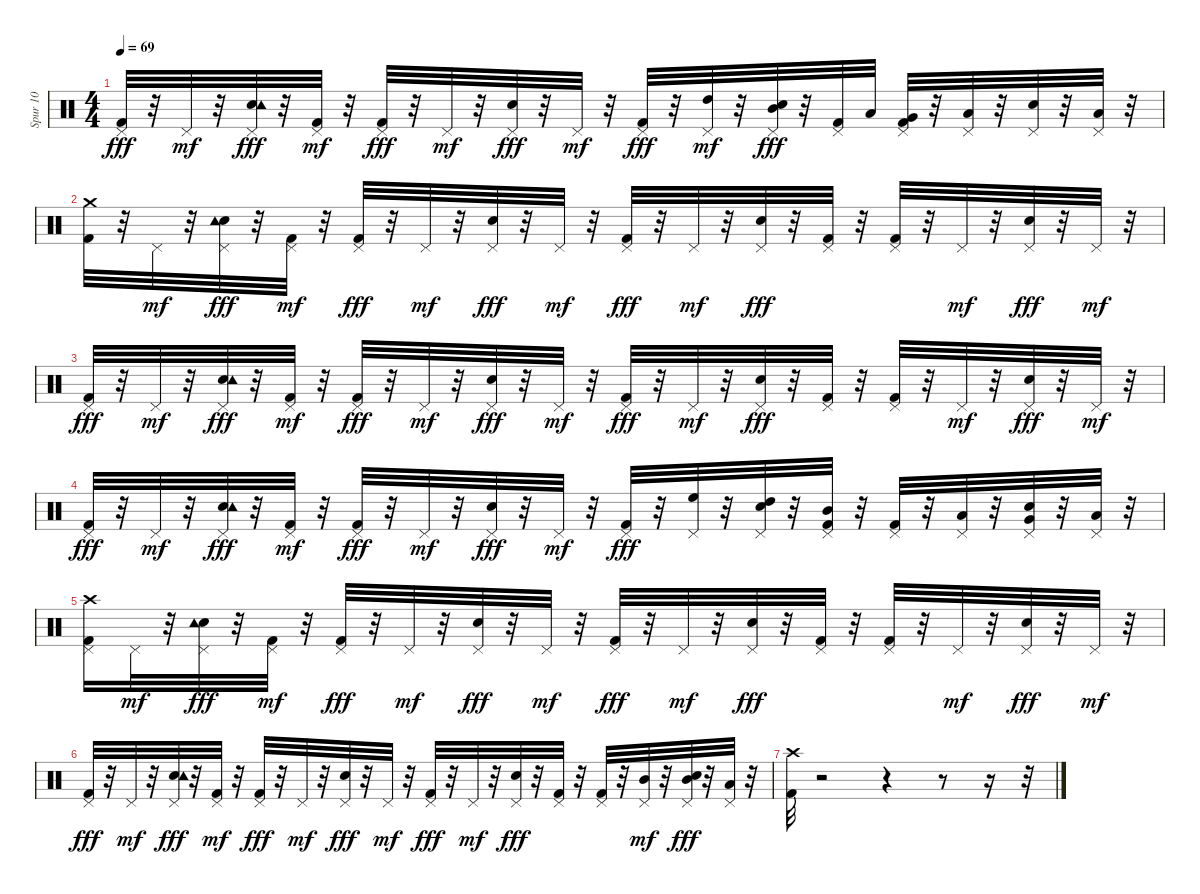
\track ("Spur 10" "Spur 10") {instrument percussion}
\staff {score}
\articulation defaults
\ts (4 4)
\tempo 69
\clef neutral
\ks c
("Kick (hit) 2" "Pedal Hi-Hat (hit)").32{dy fff} r.32 "Pedal Hi-Hat (hit)".32{dy mf} r.32 ("Snare (hit) 2" "Pedal Hi-Hat (hit)" "Tambourine (hit)").32{dy fff} r.32 ("Kick (hit) 2" "Pedal Hi-Hat (hit)").32{dy mf} r.32 ("Kick (hit) 2" "Pedal Hi-Hat (hit)").32{dy fff} r.32 "Pedal Hi-Hat (hit)".32{dy mf} r.32 ("Snare (hit) 2" "Pedal Hi-Hat (hit)").32{dy fff} r.32 "Pedal Hi-Hat (hit)".32{dy mf} r.32 ("Kick (hit) 2" "Pedal Hi-Hat (hit)").32{dy fff} r.32 ("High Tom (hit)" "Pedal Hi-Hat (hit)").32{dy mf} r.32 ("Mid Tom (hit)" "Snare (hit) 2" "Pedal Hi-Hat (hit)").32{dy fff} r.32 ("Kick (hit) 2" "Pedal Hi-Hat (hit)").32 "Low Tom (hit)".32 ("Very Low Tom (hit)" "Kick (hit) 2" "Pedal Hi-Hat (hit)").32 r.32 ("Pedal Hi-Hat (hit)" "Low Floor Tom (hit)").32 r.32 ("Snare (hit) 2" "Pedal Hi-Hat (hit)").32 r.32 ("Pedal Hi-Hat (hit)" "Low Floor Tom (hit)").32 r.32 |
("Kick (hit) 2" "Crash medium (hit)").32 r.32 "Pedal Hi-Hat (hit)".32{dy mf} r.32 ("Snare (hit) 2" "Pedal Hi-Hat (hit)" "Tambourine (hit)").32{dy fff} r.32 ("Kick (hit) 2" "Pedal Hi-Hat (hit)").32{dy mf} r.32 ("Kick (hit) 2" "Pedal Hi-Hat (hit)").32{dy fff} r.32 "Pedal Hi-Hat (hit)".32{dy mf} r.32 ("Snare (hit) 2" "Pedal Hi-Hat (hit)").32{dy fff} r.32 "Pedal Hi-Hat (hit)".32{dy mf} r.32 ("Kick (hit) 2" "Pedal Hi-Hat (hit)").32{dy fff} r.32 "Pedal Hi-Hat (hit)".32{dy mf} r.32 ("Snare (hit) 2" "Pedal Hi-Hat (hit)").32{dy fff} r.32 ("Kick (hit) 2" "Pedal Hi-Hat (hit)").32 r.32 ("Kick (hit) 2" "Pedal Hi-Hat (hit)").32 r.32 "Pedal Hi-Hat (hit)".32{dy mf} r.32 ("Snare (hit) 2" "Pedal Hi-Hat (hit)").32{dy fff} r.32 "Pedal Hi-Hat (hit)".32{dy mf} r.32 |
("Kick (hit) 2" "Pedal Hi-Hat (hit)").32{dy fff} r.32 "Pedal Hi-Hat (hit)".32{dy mf} r.32 ("Snare (hit) 2" "Pedal Hi-Hat (hit)" "Tambourine (hit)").32{dy fff} r.32 ("Kick (hit) 2" "Pedal Hi-Hat (hit)").32{dy mf} r.32 ("Kick (hit) 2" "Pedal Hi-Hat (hit)").32{dy fff} r.32 "Pedal Hi-Hat (hit)".32{dy mf} r.32 ("Snare (hit) 2" "Pedal Hi-Hat (hit)").32{dy fff} r.32 "Pedal Hi-Hat (hit)".32{dy mf} r.32 ("Kick (hit) 2" "Pedal Hi-Hat (hit)").32{dy fff} r.32 "Pedal Hi-Hat (hit)".32{dy mf} r.32 ("Snare (hit) 2" "Pedal Hi-Hat (hit)").32{dy fff} r.32 ("Kick (hit) 2" "Pedal Hi-Hat (hit)").32 r.32 ("Kick (hit) 2" "Pedal Hi-Hat (hit)").32 r.32 "Pedal Hi-Hat (hit)".32{dy mf} r.32 ("Snare (hit) 2" "Pedal Hi-Hat (hit)").32{dy fff} r.32 "Pedal Hi-Hat (hit)".32{dy mf} r.32 |
("Kick (hit) 2" "Pedal Hi-Hat (hit)").32{dy fff} r.32 "Pedal Hi-Hat (hit)".32{dy mf} r.32 ("Snare (hit) 2" "Pedal Hi-Hat (hit)" "Tambourine (hit)").32{dy fff} r.32 ("Kick (hit) 2" "Pedal Hi-Hat (hit)").32{dy mf} r.32 ("Kick (hit) 2" "Pedal Hi-Hat (hit)").32{dy fff} r.32 "Pedal Hi-Hat (hit)".32{dy mf} r.32 ("Snare (hit) 2" "Pedal Hi-Hat (hit)").32{dy fff} r.32 "Pedal Hi-Hat (hit)".32{dy mf} r.32 ("Kick (hit) 2" "Pedal Hi-Hat (hit)").32{dy fff} r.32 ("Pedal Hi-Hat (hit)" "High Floor Tom (hit)").32 r.32 ("High Tom (hit)" "Snare (hit) 2" "Pedal Hi-Hat (hit)").32 r.32 ("Kick (hit) 2" "Pedal Hi-Hat (hit)" "Mid Tom (hit)").32 r.32 ("Kick (hit) 2" "Pedal Hi-Hat (hit)").32 r.32 ("Pedal Hi-Hat (hit)" "Low Tom (hit)").32 r.32 ("Snare (hit) 2" "Pedal Hi-Hat (hit)" "Very Low Tom (hit)").32 r.32 ("Pedal Hi-Hat (hit)" "Low Floor Tom (hit)").32 r.32 |
("Crash high (hit)" "Kick (hit) 2" "Pedal Hi-Hat (hit)").16 "Pedal Hi-Hat (hit)".32{dy mf} r.32 ("Snare (hit) 2" "Pedal Hi-Hat (hit)" "Tambourine (hit)").32{dy fff} r.32 ("Kick (hit) 2" "Pedal Hi-Hat (hit)").32{dy mf} r.32 ("Kick (hit) 2" "Pedal Hi-Hat (hit)").32{dy fff} r.32 "Pedal Hi-Hat (hit)".32{dy mf} r.32 ("Snare (hit) 2" "Pedal Hi-Hat (hit)").32{dy fff} r.32 "Pedal Hi-Hat (hit)".32{dy mf} r.32 ("Kick (hit) 2" "Pedal Hi-Hat (hit)").32{dy fff} r.32 "Pedal Hi-Hat (hit)".32{dy mf} r.32 ("Snare (hit) 2" "Pedal Hi-Hat (hit)").32{dy fff} r.32 ("Kick (hit) 2" "Pedal Hi-Hat (hit)").32 r.32 ("Kick (hit) 2" "Pedal Hi-Hat (hit)").32 r.32 "Pedal Hi-Hat (hit)".32{dy mf} r.32 ("Snare (hit) 2" "Pedal Hi-Hat (hit)").32{dy fff} r.32 "Pedal Hi-Hat (hit)".32{dy mf} r.32 |
("Kick (hit) 2" "Pedal Hi-Hat (hit)").32{dy fff} r.32 "Pedal Hi-Hat (hit)".32{dy mf} r.32 ("Snare (hit) 2" "Pedal Hi-Hat (hit)" "Tambourine (hit)").32{dy fff} r.32 ("Kick (hit) 2" "Pedal Hi-Hat (hit)").32{dy mf} r.32 ("Kick (hit) 2" "Pedal Hi-Hat (hit)").32{dy fff} r.32 "Pedal Hi-Hat (hit)".32{dy mf} r.32 ("Snare (hit) 2" "Pedal Hi-Hat (hit)").32{dy fff} r.32 "Pedal Hi-Hat (hit)".32{dy mf} r.32 ("Kick (hit) 2" "Pedal Hi-Hat (hit)").32{dy fff} r.32 "Pedal Hi-Hat (hit)".32{dy mf} r.32 ("Snare (hit) 2" "Pedal Hi-Hat (hit)").32{dy fff} r.32 ("Kick (hit) 2" "Pedal Hi-Hat (hit)").32 r.32 ("Kick (hit) 2" "Pedal Hi-Hat (hit)").32 r.32 ("Mid Tom (hit)" "Pedal Hi-Hat (hit)").32{dy mf} r.32 ("Mid Tom (hit)" "Snare (hit) 2" "Pedal Hi-Hat (hit)").32{dy fff} r.32 ("Pedal Hi-Hat (hit)" "Low Tom (hit)").32 r.32 |
("Kick (hit) 2" "Crash high (hit)").32 r.2 r.4 r.8 r.16 r.32
